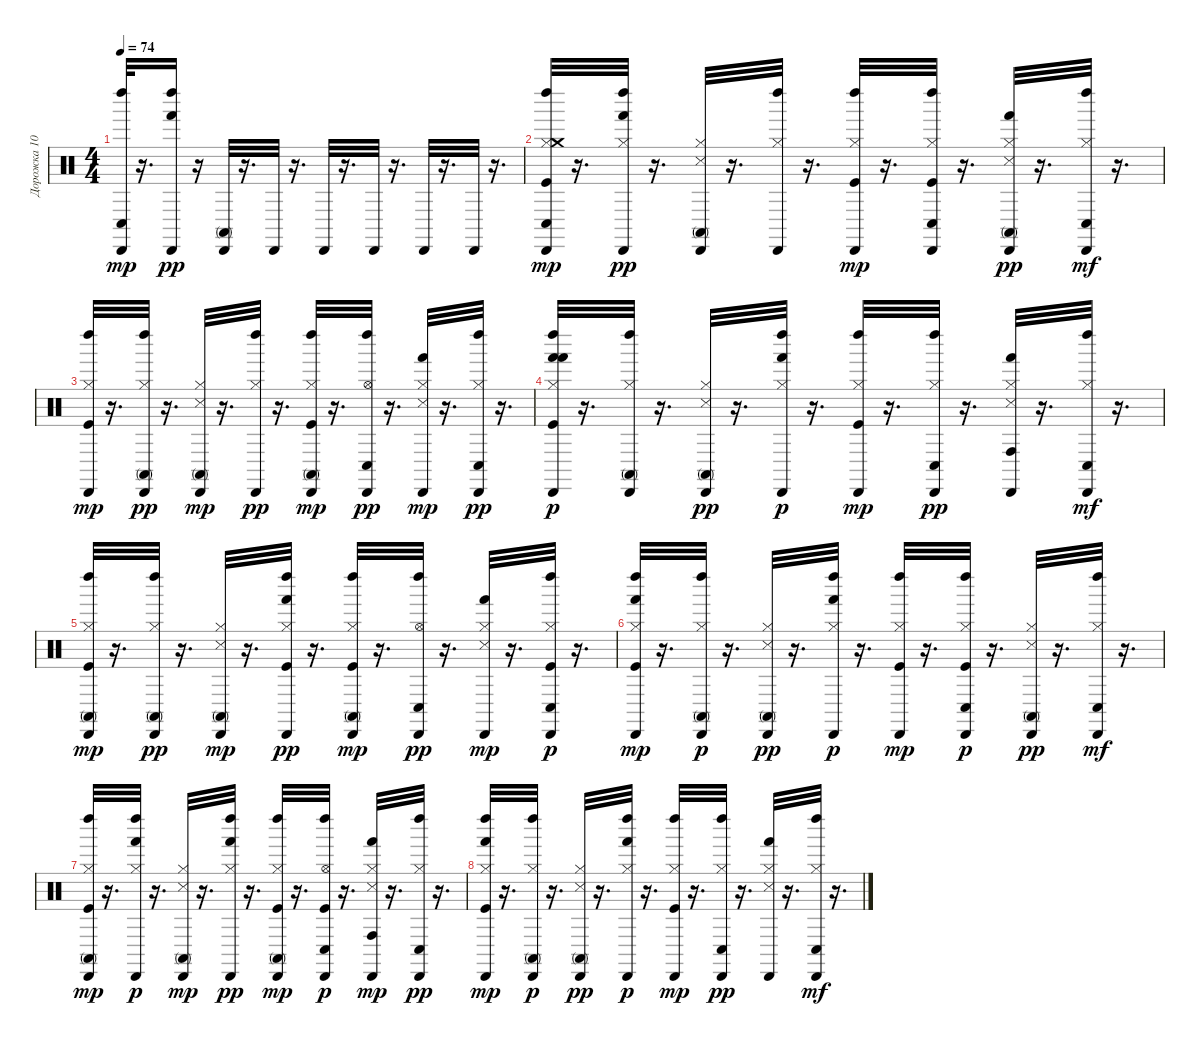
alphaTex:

\track ("Дорожка 10" "Дорожка 10") {instrument percussion}
\staff {score}
\articulation defaults
\ts (4 4)
\tempo 74
\clef neutral
\ks c
("Conga low (hit)" "Cabasa (hit)" "Left Maraca (hit)").32{dy mp} r.16{d} ("Hand (hit)" "Cabasa (hit)" "Left Maraca (hit)").16{dy pp} r.16 ("Conga high (mute)" "Cabasa (hit)").32 r.16{d} "Cabasa (hit)".32 r.16{d} "Cabasa (hit)".32 r.16{d} "Cabasa (hit)".32 r.16{d} "Cabasa (hit)".32 r.16{d} "Cabasa (hit)".32 r.16{d} |
("Hi-Hat (closed)" "Crash medium (hit)" "Kick (hit)" "Conga low (hit)" "Cabasa (hit)" "Left Maraca (hit)").32{dy mp} r.16{d} ("Hi-Hat (closed)" "Hand (hit)" "Cabasa (hit)" "Left Maraca (hit)").32{dy pp} r.16{d} ("Snare (side stick) 3" "Hi-Hat (closed)" "Conga high (mute)" "Cabasa (hit)").32 r.16{d} ("Hi-Hat (closed)" "Cabasa (hit)" "Left Maraca (hit)").32 r.16{d} ("Hi-Hat (closed)" "Cabasa (hit)" "Left Maraca (hit)" "Kick (hit)").32{dy mp} r.16{d} ("Hi-Hat (closed)" "Conga low (hit)" "Cabasa (hit)" "Left Maraca (hit)" "Kick (hit)").32 r.16{d} ("Snare (side stick) 3" "Hi-Hat (closed)" "Conga high (mute)" "Hand (hit)" "Cabasa (hit)").32{dy pp} r.16{d} ("Hi-Hat (closed)" "Cabasa (hit)" "Left Maraca (hit)" "Conga low (hit)").32{dy mf} r.16{d} |
("Kick (hit)" "Hi-Hat (closed)" "Cabasa (hit)" "Left Maraca (hit)").32{dy mp} r.16{d} ("Hi-Hat (closed)" "Conga high (mute)" "Cabasa (hit)" "Left Maraca (hit)").32{dy pp} r.16{d} ("Hi-Hat (closed)" "Conga high (mute)" "Cabasa (hit)" "Snare (side stick) 3").32{dy mp} r.16{d} ("Hi-Hat (closed)" "Cabasa (hit)" "Left Maraca (hit)").32{dy pp} r.16{d} ("Kick (hit)" "Hi-Hat (closed)" "Conga high (mute)" "Cabasa (hit)" "Left Maraca (hit)").32{dy mp} r.16{d} ("Hi-Hat (open)" "Conga low (hit)" "Cabasa (hit)" "Left Maraca (hit)").32{dy pp} r.16{d} ("Hi-Hat (closed)" "Hand (hit)" "Cabasa (hit)" "Snare (side stick) 3").32{dy mp} r.16{d} ("Hi-Hat (closed)" "Conga low (hit)" "Cabasa (hit)" "Left Maraca (hit)").32{dy pp} r.16{d} |
("Kick (hit)" "Hi-Hat (closed)" "Hand (hit)" "Cabasa (hit)" "Left Maraca (hit)" "Hand (hit)").32{dy p} r.16{d} ("Hi-Hat (closed)" "Cabasa (hit)" "Left Maraca (hit)" "Conga high (mute)").32 r.16{d} ("Hi-Hat (closed)" "Snare (side stick) 3" "Conga high (mute)" "Cabasa (hit)").32{dy pp} r.16{d} ("Hi-Hat (closed)" "Cabasa (hit)" "Left Maraca (hit)" "Hand (hit)").32{dy p} r.16{d} ("Hi-Hat (closed)" "Cabasa (hit)" "Left Maraca (hit)" "Kick (hit)").32{dy mp} r.16{d} ("Hi-Hat (closed)" "Conga low (hit)" "Cabasa (hit)" "Left Maraca (hit)").32{dy pp} r.16{d} ("Hi-Hat (closed)" "Snare (side stick) 3" "Hand (hit)" "Conga high (hit)" "Cabasa (hit)").32 r.16{d} ("Hi-Hat (closed)" "Cabasa (hit)" "Left Maraca (hit)" "Conga low (hit)").32{dy mf} r.16{d} |
("Kick (hit)" "Conga high (mute)" "Hi-Hat (closed)" "Cabasa (hit)" "Left Maraca (hit)").32{dy mp} r.16{d} ("Hi-Hat (closed)" "Conga high (mute)" "Cabasa (hit)" "Left Maraca (hit)").32{dy pp} r.16{d} ("Hi-Hat (closed)" "Conga high (mute)" "Cabasa (hit)" "Snare (side stick) 3").32{dy mp} r.16{d} ("Hi-Hat (closed)" "Cabasa (hit)" "Left Maraca (hit)" "Kick (hit)" "Hand (hit)").32{dy pp} r.16{d} ("Hi-Hat (closed)" "Kick (hit)" "Conga high (mute)" "Cabasa (hit)" "Left Maraca (hit)").32{dy mp} r.16{d} ("Hi-Hat (open)" "Conga low (hit)" "Cabasa (hit)" "Left Maraca (hit)").32{dy pp} r.16{d} ("Hi-Hat (closed)" "Hand (hit)" "Cabasa (hit)" "Snare (side stick) 3").32{dy mp} r.16{d} ("Hi-Hat (closed)" "Conga low (hit)" "Cabasa (hit)" "Left Maraca (hit)" "Kick (hit)").32{dy p} r.16{d} |
("Kick (hit)" "Hi-Hat (closed)" "Hand (hit)" "Cabasa (hit)" "Left Maraca (hit)").32{dy mp} r.16{d} ("Hi-Hat (closed)" "Cabasa (hit)" "Left Maraca (hit)" "Conga high (mute)").32{dy p} r.16{d} ("Hi-Hat (closed)" "Snare (side stick) 3" "Conga high (mute)" "Cabasa (hit)").32{dy pp} r.16{d} ("Hi-Hat (closed)" "Cabasa (hit)" "Left Maraca (hit)" "Hand (hit)").32{dy p} r.16{d} ("Hi-Hat (closed)" "Cabasa (hit)" "Left Maraca (hit)" "Kick (hit)").32{dy mp} r.16{d} ("Hi-Hat (closed)" "Conga low (hit)" "Cabasa (hit)" "Left Maraca (hit)" "Kick (hit)").32{dy p} r.16{d} ("Hi-Hat (closed)" "Snare (side stick) 3" "Conga high (mute)" "Cabasa (hit)").32{dy pp} r.16{d} ("Hi-Hat (closed)" "Cabasa (hit)" "Left Maraca (hit)" "Conga low (hit)").32{dy mf} r.16{d} |
("Kick (hit)" "Conga high (mute)" "Hi-Hat (closed)" "Cabasa (hit)" "Left Maraca (hit)").32{dy mp} r.16{d} ("Hi-Hat (closed)" "Cabasa (hit)" "Left Maraca (hit)" "Hand (hit)").32{dy p} r.16{d} ("Hi-Hat (closed)" "Conga high (mute)" "Cabasa (hit)" "Snare (side stick) 3").32{dy mp} r.16{d} ("Hi-Hat (closed)" "Cabasa (hit)" "Left Maraca (hit)" "Hand (hit)").32{dy pp} r.16{d} ("Hi-Hat (closed)" "Kick (hit)" "Conga high (mute)" "Cabasa (hit)" "Left Maraca (hit)").32{dy mp} r.16{d} ("Hi-Hat (open)" "Conga low (hit)" "Cabasa (hit)" "Left Maraca (hit)" "Kick (hit)").32{dy p} r.16{d} ("Hi-Hat (closed)" "Cabasa (hit)" "Snare (side stick) 3" "Conga high (hit)" "Hand (hit)").32{dy mp} r.16{d} ("Hi-Hat (closed)" "Conga low (hit)" "Cabasa (hit)" "Left Maraca (hit)").32{dy pp} r.16{d} |
("Kick (hit)" "Hi-Hat (closed)" "Hand (hit)" "Cabasa (hit)" "Left Maraca (hit)").32{dy mp} r.16{d} ("Hi-Hat (closed)" "Cabasa (hit)" "Left Maraca (hit)" "Conga high (mute)").32{dy p} r.16{d} ("Hi-Hat (closed)" "Snare (side stick) 3" "Conga high (mute)" "Cabasa (hit)").32{dy pp} r.16{d} ("Hi-Hat (closed)" "Cabasa (hit)" "Left Maraca (hit)" "Hand (hit)").32{dy p} r.16{d} ("Hi-Hat (closed)" "Cabasa (hit)" "Left Maraca (hit)" "Kick (hit)").32{dy mp} r.16{d} ("Hi-Hat (closed)" "Conga low (hit)" "Cabasa (hit)" "Left Maraca (hit)").32{dy pp} r.16{d} ("Hi-Hat (closed)" "Snare (side stick) 3" "Hand (hit)" "Cabasa (hit)").32 r.16{d} ("Hi-Hat (closed)" "Cabasa (hit)" "Left Maraca (hit)" "Conga low (hit)").32{dy mf} r.16{d}
